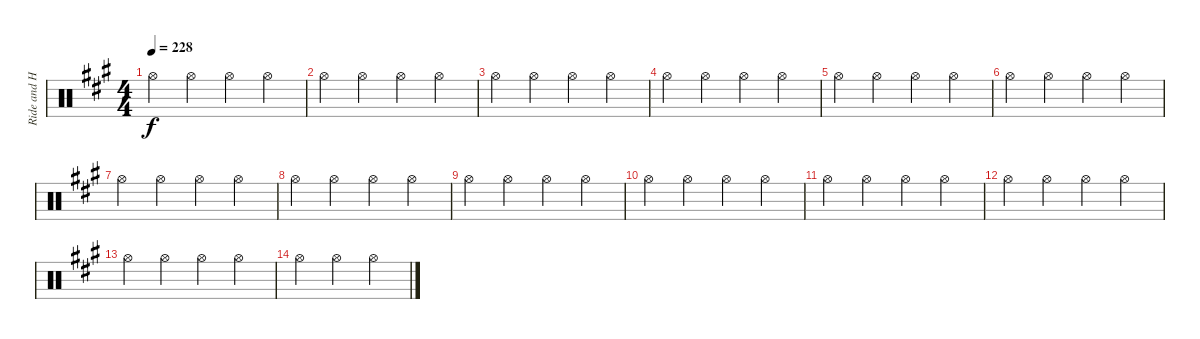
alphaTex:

\track ("Ride and Hi Hat" "Ride and H") {instrument percussion}
\staff {score}
\articulation defaults
\ts (4 4)
\tempo 228
\clef neutral
\ks a "Hi-Hat (open)".4{dy f} "Hi-Hat (open)".4 "Hi-Hat (open)".4 "Hi-Hat (open)".4
|
"Hi-Hat (open)".4 "Hi-Hat (open)".4 "Hi-Hat (open)".4 "Hi-Hat (open)".4 |
"Hi-Hat (open)".4 "Hi-Hat (open)".4 "Hi-Hat (open)".4 "Hi-Hat (open)".4 |
"Hi-Hat (open)".4 "Hi-Hat (open)".4 "Hi-Hat (open)".4 "Hi-Hat (open)".4 |
"Hi-Hat (open)".4 "Hi-Hat (open)".4 "Hi-Hat (open)".4 "Hi-Hat (open)".4 |
"Hi-Hat (open)".4 "Hi-Hat (open)".4 "Hi-Hat (open)".4 "Hi-Hat (open)".4 |
"Hi-Hat (open)".4 "Hi-Hat (open)".4 "Hi-Hat (open)".4 "Hi-Hat (open)".4 |
"Hi-Hat (open)".4 "Hi-Hat (open)".4 "Hi-Hat (open)".4 "Hi-Hat (open)".4 |
"Hi-Hat (open)".4 "Hi-Hat (open)".4 "Hi-Hat (open)".4 "Hi-Hat (open)".4 |
"Hi-Hat (open)".4 "Hi-Hat (open)".4 "Hi-Hat (open)".4 "Hi-Hat (open)".4 |
"Hi-Hat (open)".4 "Hi-Hat (open)".4 "Hi-Hat (open)".4 "Hi-Hat (open)".4 |
"Hi-Hat (open)".4 "Hi-Hat (open)".4 "Hi-Hat (open)".4 "Hi-Hat (open)".4 |
"Hi-Hat (open)".4 "Hi-Hat (open)".4 "Hi-Hat (open)".4 "Hi-Hat (open)".4 |
"Hi-Hat (open)".4 "Hi-Hat (open)".4 "Hi-Hat (open)".4
